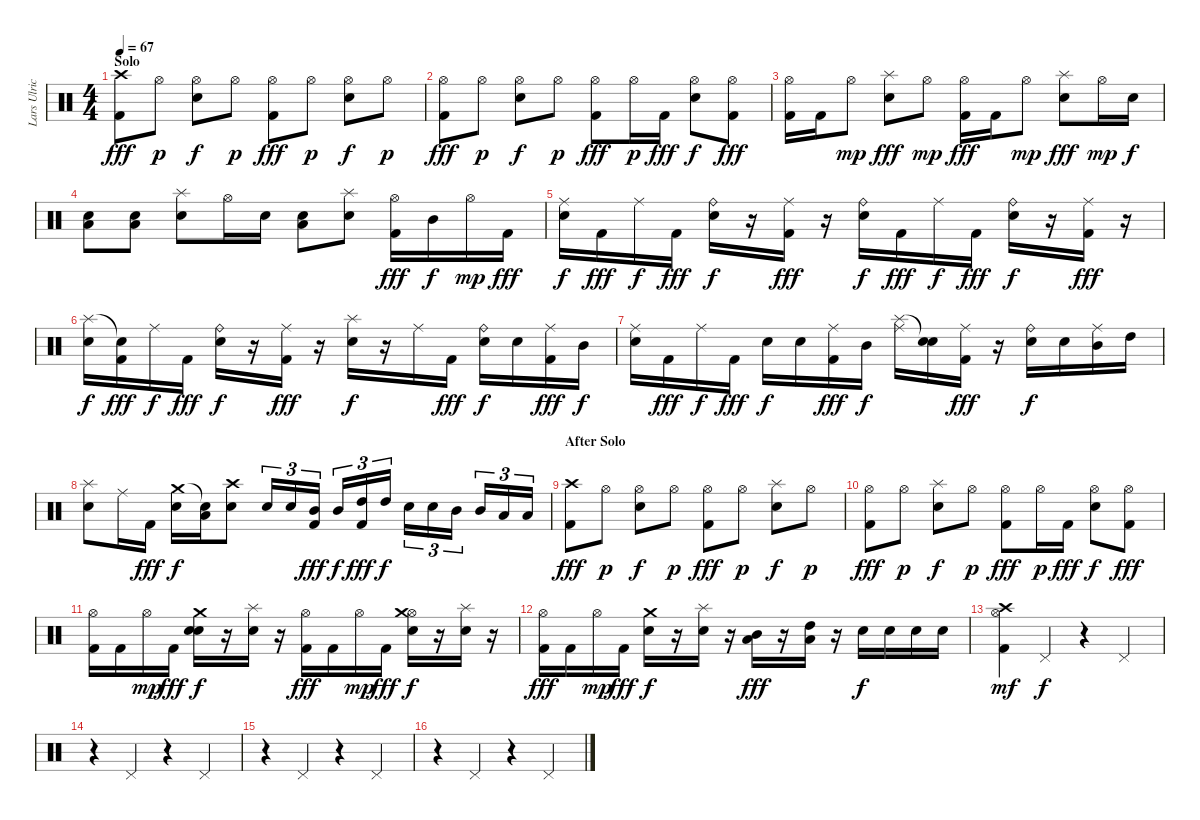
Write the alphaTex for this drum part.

\track ("Lars Ulrich (Drums)" "Lars Ulric") {instrument percussion}
\staff {score}
\articulation defaults
\ts (4 4)
\section ("" "Solo")
\tempo 67
\clef neutral
\ks c
("Kick (hit) 2" "Crash high (hit)").8{dy fff} "Hi-Hat (open)".8{dy p} ("Hi-Hat (open)" "Snare (hit) 2").8{dy f} "Hi-Hat (open)".8{dy p} ("Hi-Hat (open)" "Kick (hit) 2").8{dy fff} "Hi-Hat (open)".8{dy p} ("Hi-Hat (open)" "Snare (hit) 2").8{dy f} "Hi-Hat (open)".8{dy p} |
("Hi-Hat (open)" "Kick (hit) 2").8{dy fff} "Hi-Hat (open)".8{dy p} ("Hi-Hat (open)" "Snare (hit) 2").8{dy f} "Hi-Hat (open)".8{dy p} ("Hi-Hat (open)" "Kick (hit) 2").8{dy fff} "Hi-Hat (open)".16{dy p} "Kick (hit) 2".16{dy fff} ("Hi-Hat (open)" "Snare (hit) 2").8{dy f} ("Hi-Hat (open)" "Kick (hit) 2").8{dy fff} |
("Hi-Hat (open)" "Kick (hit) 2").16 "Kick (hit) 2".16 "Hi-Hat (open)".8{dy mp} ("Snare (hit) 2" "Splash (hit)").8{dy fff} "Hi-Hat (open)".8{dy mp} ("Hi-Hat (open)" "Kick (hit) 2").16{dy fff} "Kick (hit) 2".16 "Hi-Hat (open)".8{dy mp} ("Snare (hit) 2" "Splash (hit)").8{dy fff} "Hi-Hat (open)".16{dy mp} "Snare (hit) 2".16{dy f} |
("Snare (hit) 2" "Low Tom (hit)").8 ("Snare (hit) 2" "Low Tom (hit)").8 ("Snare (hit) 2" "Splash (hit)").8 "Hi-Hat (open)".16 "Snare (hit) 2".16 ("Snare (hit) 2" "Low Tom (hit)").8 ("Snare (hit) 2" "Splash (hit)").8 ("Hi-Hat (open)" "Kick (hit) 2").16{dy fff} "Mid Tom (hit)".16{dy f} "Hi-Hat (open)".16{dy mp} "Kick (hit) 2".16{dy fff} |
("Ride (middle)" "Snare (hit) 2").16{dy f} "Kick (hit) 2".16{dy fff} "Ride (middle)".16{dy f} "Kick (hit) 2".16{dy fff} ("Ride (bell)" "Snare (hit) 2").16{dy f} r.16 ("Ride (middle)" "Kick (hit) 2").16{dy fff} r.16 ("Ride (bell)" "Snare (hit) 2").16{dy f} "Kick (hit) 2".16{dy fff} "Ride (middle)".16{dy f} "Kick (hit) 2".16{dy fff} ("Ride (bell)" "Snare (hit) 2").16{dy f} r.16 ("Ride (middle)" "Kick (hit) 2").16{dy fff} r.16 |
("Snare (hit) 2" "Splash (hit)").16{dy f} ("Kick (hit) 2" "Snare (hit)"{t}).16{dy fff} "Ride (middle)".16{dy f} "Kick (hit) 2".16{dy fff} ("Ride (bell)" "Snare (hit) 2").16{dy f} r.16 ("Ride (middle)" "Kick (hit) 2").16{dy fff} r.16 ("Snare (hit) 2" "Splash (hit)").16{dy f} r.16 "Ride (middle)".16 "Kick (hit) 2".16{dy fff} ("Ride (bell)" "Snare (hit) 2").16{dy f} "Snare (hit) 2".16 ("Ride (middle)" "Kick (hit) 2").16{dy fff} "Mid Tom (hit)".16{dy f} |
("Ride (middle)" "Snare (hit) 2").16 "Kick (hit) 2".16{dy fff} "Ride (middle)".16{dy f} "Kick (hit) 2".16{dy fff} "Snare (hit) 2".16{dy f} "Snare (hit) 2".16 ("Ride (middle)" "Kick (hit) 2").16{dy fff} "Mid Tom (hit)".16{dy f} ("Ride (middle)" "Splash (hit)").16 ("Snare (hit) 2" "Snare (hit)"{t}).16 ("Ride (middle)" "Kick (hit) 2").16{dy fff} r.16 ("Ride (bell)" "Snare (hit) 2").16{dy f} "Snare (hit) 2".16 ("Ride (middle)" "Mid Tom (hit)").16 "High Tom (hit)".16 |
("Snare (hit) 2" "Splash (hit)").8 "Ride (middle)".16 "Kick (hit) 2".16{dy fff} ("Snare (hit) 2" "Crash medium (hit)").16{dy f} ("Low Tom (hit)" "Snare (hit)"{t}).16 ("Snare (hit) 2" "Crash high (hit)").8 "Snare (hit) 2".16{tu (3 2)} "Snare (hit) 2".16{tu (3 2)} ("Mid Tom (hit)" "Kick (hit) 2").16{tu (3 2) dy fff} "Mid Tom (hit)".16{tu (3 2) dy f} ("High Tom (hit)" "Kick (hit) 2").16{tu (3 2) dy fff} "High Tom (hit)".16{tu (3 2) dy f} "Snare (hit) 2".16{tu (3 2)} "Snare (hit) 2".16{tu (3 2)} "Mid Tom (hit)".16{tu (3 2)} "Mid Tom (hit)".16{tu (3 2)} "Low Tom (hit)".16{tu (3 2)} "Low Tom (hit)".16{tu (3 2)} |
\section ("" "After Solo")
("Kick (hit) 2" "Crash high (hit)").8{dy fff} "Hi-Hat (open)".8{dy p} ("Hi-Hat (open)" "Snare (hit) 2").8{dy f} "Hi-Hat (open)".8{dy p} ("Hi-Hat (open)" "Kick (hit) 2").8{dy fff} "Hi-Hat (open)".8{dy p} ("Snare (hit) 2" "Splash (hit)").8{dy f} "Hi-Hat (open)".8{dy p} |
("Hi-Hat (open)" "Kick (hit) 2").8{dy fff} "Hi-Hat (open)".8{dy p} ("Snare (hit) 2" "Splash (hit)").8{dy f} "Hi-Hat (open)".8{dy p} ("Hi-Hat (open)" "Kick (hit) 2").8{dy fff} "Hi-Hat (open)".16{dy p} "Kick (hit) 2".16{dy fff} ("Hi-Hat (open)" "Snare (hit) 2").8{dy f} ("Hi-Hat (open)" "Kick (hit) 2").8{dy fff} |
("Hi-Hat (open)" "Kick (hit) 2").16 "Kick (hit) 2".16 "Hi-Hat (open)".16{dy mp} "Kick (hit) 2".16{dy fff} ("Snare (hit)" "Snare (hit) 2" "Crash medium (hit)").16{dy f} r.16 ("Snare (hit) 2" "Splash (hit)").16 r.16 ("Hi-Hat (open)" "Kick (hit) 2").16{dy fff} "Kick (hit) 2".16 "Hi-Hat (open)".16{dy mp} "Kick (hit) 2".16{dy fff} ("Hi-Hat (open)" "Snare (hit) 2" "Crash medium (hit)").16{dy f} r.16 ("Snare (hit) 2" "Splash (hit)").16 r.16 |
("Hi-Hat (open)" "Kick (hit) 2").16{dy fff} "Kick (hit) 2".16 "Hi-Hat (open)".16{dy mp} "Kick (hit) 2".16{dy fff} ("Snare (hit) 2" "Crash medium (hit)").16{dy f} r.16 ("Snare (hit) 2" "Splash (hit)").16 r.16 ("Low Tom (hit)" "Mid Tom (hit)").16{dy fff} r.16 ("Low Tom (hit)" "High Tom (hit)").16 r.16 "Snare (hit) 2".16{dy f} "Snare (hit) 2".16 "Snare (hit) 2".16 "Snare (hit) 2".16 |
("Hi-Hat (open)" "Kick (hit) 2" "Crash high (hit)").4{dy mf} "Pedal Hi-Hat (hit)".4{dy f} r.4 "Pedal Hi-Hat (hit)".4 |
r.4 "Pedal Hi-Hat (hit)".4 r.4 "Pedal Hi-Hat (hit)".4 |
r.4 "Pedal Hi-Hat (hit)".4 r.4 "Pedal Hi-Hat (hit)".4 |
r.4 "Pedal Hi-Hat (hit)".4 r.4 "Pedal Hi-Hat (hit)".4
